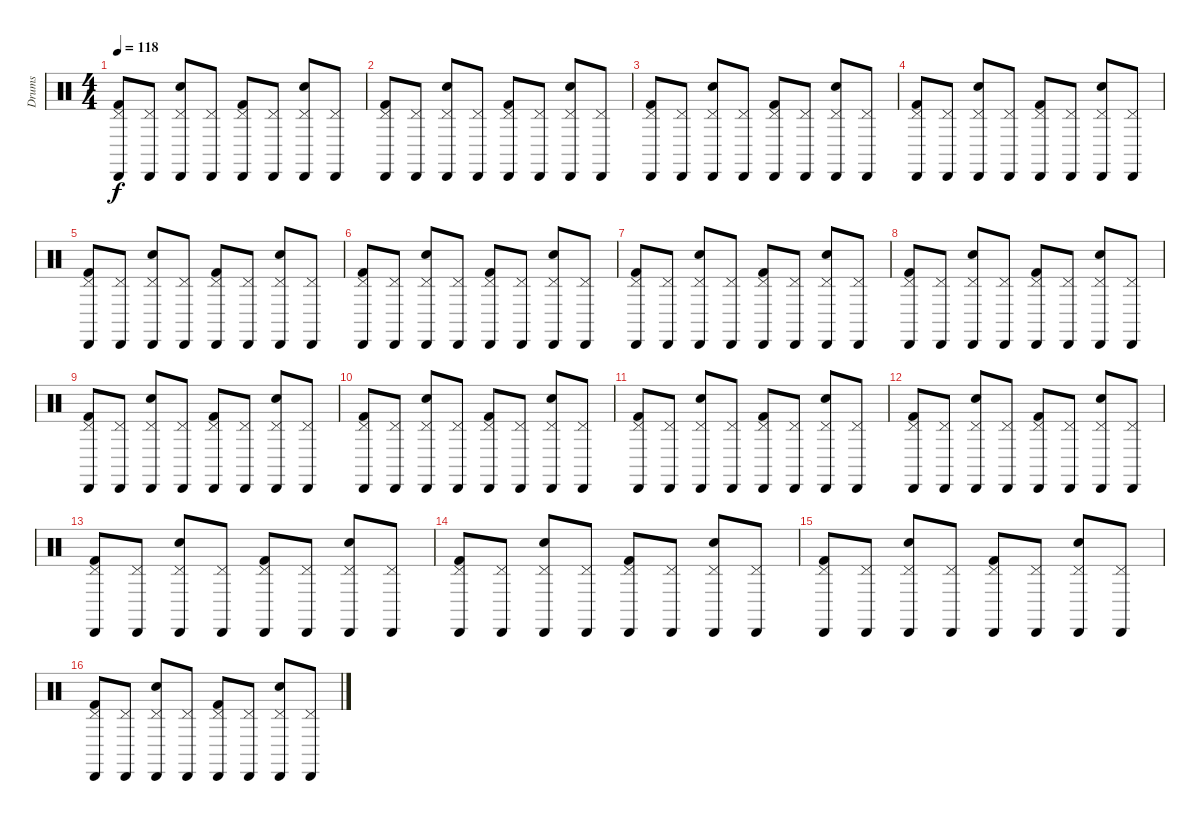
\track ("Drums" "Drums") {instrument percussion}
\staff {score}
\articulation defaults
\ts (4 4)
\tempo 118
\clef neutral
\ks c
("Kick (hit) 2" "Pedal Hi-Hat (hit)" "Cabasa (hit)").8{dy f} ("Pedal Hi-Hat (hit)" "Cabasa (hit)").8 ("Pedal Hi-Hat (hit)" "Electric Snare (hit)" "Cabasa (hit)").8 ("Pedal Hi-Hat (hit)" "Cabasa (hit)").8 ("Kick (hit) 2" "Pedal Hi-Hat (hit)" "Cabasa (hit)").8 ("Pedal Hi-Hat (hit)" "Cabasa (hit)").8 ("Pedal Hi-Hat (hit)" "Electric Snare (hit)" "Cabasa (hit)").8 ("Pedal Hi-Hat (hit)" "Cabasa (hit)").8 |
("Kick (hit) 2" "Pedal Hi-Hat (hit)" "Cabasa (hit)").8 ("Pedal Hi-Hat (hit)" "Cabasa (hit)").8 ("Pedal Hi-Hat (hit)" "Electric Snare (hit)" "Cabasa (hit)").8 ("Pedal Hi-Hat (hit)" "Cabasa (hit)").8 ("Kick (hit) 2" "Pedal Hi-Hat (hit)" "Cabasa (hit)").8 ("Pedal Hi-Hat (hit)" "Cabasa (hit)").8 ("Pedal Hi-Hat (hit)" "Electric Snare (hit)" "Cabasa (hit)").8 ("Pedal Hi-Hat (hit)" "Cabasa (hit)").8 |
("Kick (hit) 2" "Pedal Hi-Hat (hit)" "Cabasa (hit)").8 ("Pedal Hi-Hat (hit)" "Cabasa (hit)").8 ("Pedal Hi-Hat (hit)" "Electric Snare (hit)" "Cabasa (hit)").8 ("Pedal Hi-Hat (hit)" "Cabasa (hit)").8 ("Kick (hit) 2" "Pedal Hi-Hat (hit)" "Cabasa (hit)").8 ("Pedal Hi-Hat (hit)" "Cabasa (hit)").8 ("Pedal Hi-Hat (hit)" "Electric Snare (hit)" "Cabasa (hit)").8 ("Pedal Hi-Hat (hit)" "Cabasa (hit)").8 |
("Kick (hit) 2" "Pedal Hi-Hat (hit)" "Cabasa (hit)").8 ("Pedal Hi-Hat (hit)" "Cabasa (hit)").8 ("Pedal Hi-Hat (hit)" "Electric Snare (hit)" "Cabasa (hit)").8 ("Pedal Hi-Hat (hit)" "Cabasa (hit)").8 ("Kick (hit) 2" "Pedal Hi-Hat (hit)" "Cabasa (hit)").8 ("Pedal Hi-Hat (hit)" "Cabasa (hit)").8 ("Pedal Hi-Hat (hit)" "Electric Snare (hit)" "Cabasa (hit)").8 ("Pedal Hi-Hat (hit)" "Cabasa (hit)").8 |
("Kick (hit) 2" "Pedal Hi-Hat (hit)" "Cabasa (hit)").8 ("Pedal Hi-Hat (hit)" "Cabasa (hit)").8 ("Pedal Hi-Hat (hit)" "Electric Snare (hit)" "Cabasa (hit)").8 ("Pedal Hi-Hat (hit)" "Cabasa (hit)").8 ("Kick (hit) 2" "Pedal Hi-Hat (hit)" "Cabasa (hit)").8 ("Pedal Hi-Hat (hit)" "Cabasa (hit)").8 ("Pedal Hi-Hat (hit)" "Electric Snare (hit)" "Cabasa (hit)").8 ("Pedal Hi-Hat (hit)" "Cabasa (hit)").8 |
("Kick (hit) 2" "Pedal Hi-Hat (hit)" "Cabasa (hit)").8 ("Pedal Hi-Hat (hit)" "Cabasa (hit)").8 ("Pedal Hi-Hat (hit)" "Electric Snare (hit)" "Cabasa (hit)").8 ("Pedal Hi-Hat (hit)" "Cabasa (hit)").8 ("Kick (hit) 2" "Pedal Hi-Hat (hit)" "Cabasa (hit)").8 ("Pedal Hi-Hat (hit)" "Cabasa (hit)").8 ("Pedal Hi-Hat (hit)" "Electric Snare (hit)" "Cabasa (hit)").8 ("Pedal Hi-Hat (hit)" "Cabasa (hit)").8 |
("Kick (hit) 2" "Pedal Hi-Hat (hit)" "Cabasa (hit)").8 ("Pedal Hi-Hat (hit)" "Cabasa (hit)").8 ("Pedal Hi-Hat (hit)" "Electric Snare (hit)" "Cabasa (hit)").8 ("Pedal Hi-Hat (hit)" "Cabasa (hit)").8 ("Kick (hit) 2" "Pedal Hi-Hat (hit)" "Cabasa (hit)").8 ("Pedal Hi-Hat (hit)" "Cabasa (hit)").8 ("Pedal Hi-Hat (hit)" "Electric Snare (hit)" "Cabasa (hit)").8 ("Pedal Hi-Hat (hit)" "Cabasa (hit)").8 |
("Kick (hit) 2" "Pedal Hi-Hat (hit)" "Cabasa (hit)").8 ("Pedal Hi-Hat (hit)" "Cabasa (hit)").8 ("Pedal Hi-Hat (hit)" "Electric Snare (hit)" "Cabasa (hit)").8 ("Pedal Hi-Hat (hit)" "Cabasa (hit)").8 ("Kick (hit) 2" "Pedal Hi-Hat (hit)" "Cabasa (hit)").8 ("Pedal Hi-Hat (hit)" "Cabasa (hit)").8 ("Pedal Hi-Hat (hit)" "Electric Snare (hit)" "Cabasa (hit)").8 ("Pedal Hi-Hat (hit)" "Cabasa (hit)").8 |
("Kick (hit) 2" "Pedal Hi-Hat (hit)" "Cabasa (hit)").8 ("Pedal Hi-Hat (hit)" "Cabasa (hit)").8 ("Pedal Hi-Hat (hit)" "Electric Snare (hit)" "Cabasa (hit)").8 ("Pedal Hi-Hat (hit)" "Cabasa (hit)").8 ("Kick (hit) 2" "Pedal Hi-Hat (hit)" "Cabasa (hit)").8 ("Pedal Hi-Hat (hit)" "Cabasa (hit)").8 ("Pedal Hi-Hat (hit)" "Electric Snare (hit)" "Cabasa (hit)").8 ("Pedal Hi-Hat (hit)" "Cabasa (hit)").8 |
("Kick (hit) 2" "Pedal Hi-Hat (hit)" "Cabasa (hit)").8 ("Pedal Hi-Hat (hit)" "Cabasa (hit)").8 ("Pedal Hi-Hat (hit)" "Electric Snare (hit)" "Cabasa (hit)").8 ("Pedal Hi-Hat (hit)" "Cabasa (hit)").8 ("Kick (hit) 2" "Pedal Hi-Hat (hit)" "Cabasa (hit)").8 ("Pedal Hi-Hat (hit)" "Cabasa (hit)").8 ("Pedal Hi-Hat (hit)" "Electric Snare (hit)" "Cabasa (hit)").8 ("Pedal Hi-Hat (hit)" "Cabasa (hit)").8 |
("Kick (hit) 2" "Pedal Hi-Hat (hit)" "Cabasa (hit)").8 ("Pedal Hi-Hat (hit)" "Cabasa (hit)").8 ("Pedal Hi-Hat (hit)" "Electric Snare (hit)" "Cabasa (hit)").8 ("Pedal Hi-Hat (hit)" "Cabasa (hit)").8 ("Kick (hit) 2" "Pedal Hi-Hat (hit)" "Cabasa (hit)").8 ("Pedal Hi-Hat (hit)" "Cabasa (hit)").8 ("Pedal Hi-Hat (hit)" "Electric Snare (hit)" "Cabasa (hit)").8 ("Pedal Hi-Hat (hit)" "Cabasa (hit)").8 |
("Kick (hit) 2" "Pedal Hi-Hat (hit)" "Cabasa (hit)").8 ("Pedal Hi-Hat (hit)" "Cabasa (hit)").8 ("Pedal Hi-Hat (hit)" "Electric Snare (hit)" "Cabasa (hit)").8 ("Pedal Hi-Hat (hit)" "Cabasa (hit)").8 ("Kick (hit) 2" "Pedal Hi-Hat (hit)" "Cabasa (hit)").8 ("Pedal Hi-Hat (hit)" "Cabasa (hit)").8 ("Pedal Hi-Hat (hit)" "Electric Snare (hit)" "Cabasa (hit)").8 ("Pedal Hi-Hat (hit)" "Cabasa (hit)").8 |
("Kick (hit) 2" "Pedal Hi-Hat (hit)" "Cabasa (hit)").8 ("Pedal Hi-Hat (hit)" "Cabasa (hit)").8 ("Pedal Hi-Hat (hit)" "Electric Snare (hit)" "Cabasa (hit)").8 ("Pedal Hi-Hat (hit)" "Cabasa (hit)").8 ("Kick (hit) 2" "Pedal Hi-Hat (hit)" "Cabasa (hit)").8 ("Pedal Hi-Hat (hit)" "Cabasa (hit)").8 ("Pedal Hi-Hat (hit)" "Electric Snare (hit)" "Cabasa (hit)").8 ("Pedal Hi-Hat (hit)" "Cabasa (hit)").8 |
("Kick (hit) 2" "Pedal Hi-Hat (hit)" "Cabasa (hit)").8 ("Pedal Hi-Hat (hit)" "Cabasa (hit)").8 ("Pedal Hi-Hat (hit)" "Electric Snare (hit)" "Cabasa (hit)").8 ("Pedal Hi-Hat (hit)" "Cabasa (hit)").8 ("Kick (hit) 2" "Pedal Hi-Hat (hit)" "Cabasa (hit)").8 ("Pedal Hi-Hat (hit)" "Cabasa (hit)").8 ("Pedal Hi-Hat (hit)" "Electric Snare (hit)" "Cabasa (hit)").8 ("Pedal Hi-Hat (hit)" "Cabasa (hit)").8 |
("Kick (hit) 2" "Pedal Hi-Hat (hit)" "Cabasa (hit)").8 ("Pedal Hi-Hat (hit)" "Cabasa (hit)").8 ("Pedal Hi-Hat (hit)" "Electric Snare (hit)" "Cabasa (hit)").8 ("Pedal Hi-Hat (hit)" "Cabasa (hit)").8 ("Kick (hit) 2" "Pedal Hi-Hat (hit)" "Cabasa (hit)").8 ("Pedal Hi-Hat (hit)" "Cabasa (hit)").8 ("Pedal Hi-Hat (hit)" "Electric Snare (hit)" "Cabasa (hit)").8 ("Pedal Hi-Hat (hit)" "Cabasa (hit)").8 |
("Kick (hit) 2" "Pedal Hi-Hat (hit)" "Cabasa (hit)").8 ("Pedal Hi-Hat (hit)" "Cabasa (hit)").8 ("Pedal Hi-Hat (hit)" "Electric Snare (hit)" "Cabasa (hit)").8 ("Pedal Hi-Hat (hit)" "Cabasa (hit)").8 ("Kick (hit) 2" "Pedal Hi-Hat (hit)" "Cabasa (hit)").8 ("Pedal Hi-Hat (hit)" "Cabasa (hit)").8 ("Pedal Hi-Hat (hit)" "Electric Snare (hit)" "Cabasa (hit)").8 ("Pedal Hi-Hat (hit)" "Cabasa (hit)").8
